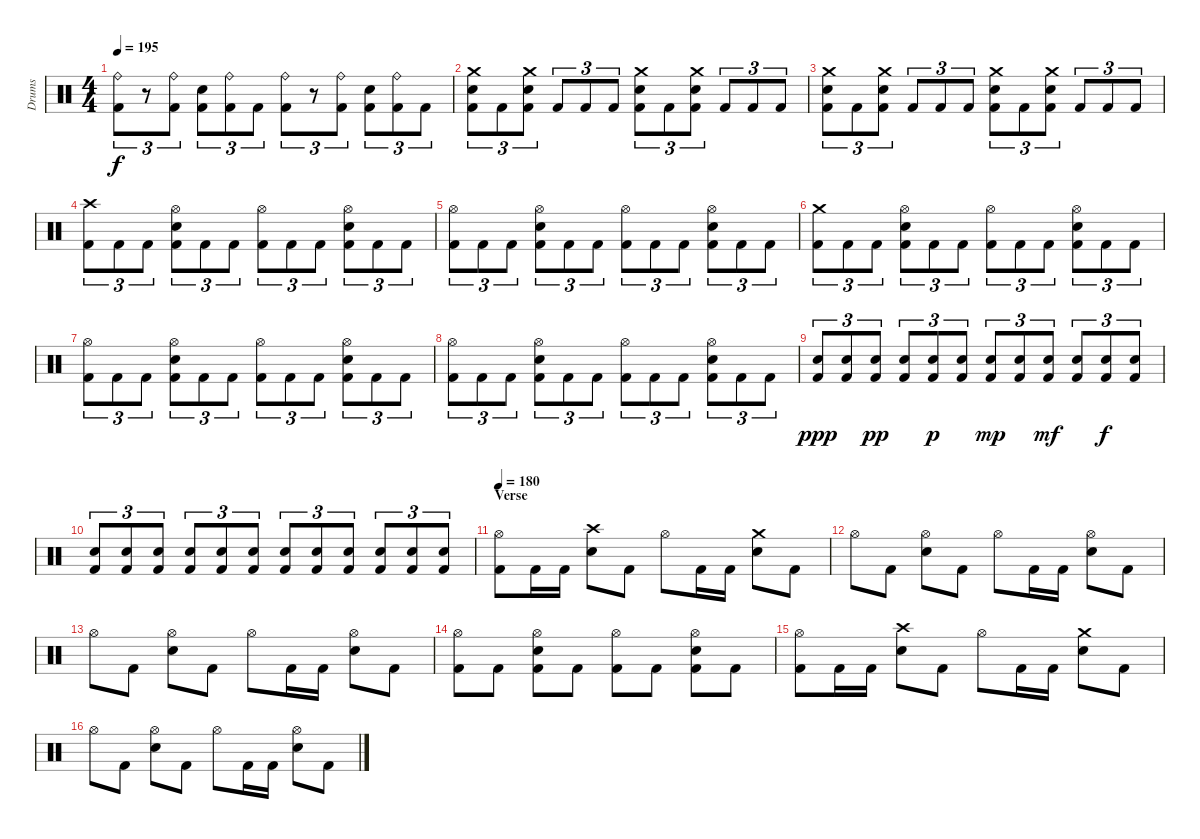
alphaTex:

\track ("Drums" "Drums") {instrument percussion}
\staff {score}
\articulation defaults
\ts (4 4)
\tempo 195
\clef neutral
\ks aminor
("Kick (hit) 2" "Ride (bell)").8{tu (3 2) dy f} r.8{tu (3 2)} ("Kick (hit) 2" "Ride (bell)").8{tu (3 2)} ("Kick (hit) 2" "Electric Snare (hit)").8{tu (3 2)} ("Kick (hit) 2" "Ride (bell)").8{tu (3 2)} "Kick (hit) 2".8{tu (3 2)} ("Kick (hit) 2" "Ride (bell)").8{tu (3 2)} r.8{tu (3 2)} ("Kick (hit) 2" "Ride (bell)").8{tu (3 2)} ("Kick (hit) 2" "Electric Snare (hit)").8{tu (3 2)} ("Kick (hit) 2" "Ride (bell)").8{tu (3 2)} "Kick (hit) 2".8{tu (3 2)} |
\section ("" "")
("Kick (hit) 2" "Electric Snare (hit)" "Crash medium (hit)").8{tu (3 2)} "Kick (hit) 2".8{tu (3 2)} ("Kick (hit) 2" "Electric Snare (hit)" "Crash medium (hit)").8{tu (3 2)} "Kick (hit) 2".8{tu (3 2)} "Kick (hit) 2".8{tu (3 2)} "Kick (hit) 2".8{tu (3 2)} ("Kick (hit) 2" "Electric Snare (hit)" "Crash medium (hit)").8{tu (3 2)} "Kick (hit) 2".8{tu (3 2)} ("Kick (hit) 2" "Electric Snare (hit)" "Crash medium (hit)").8{tu (3 2)} "Kick (hit) 2".8{tu (3 2)} "Kick (hit) 2".8{tu (3 2)} "Kick (hit) 2".8{tu (3 2)} |
("Kick (hit) 2" "Electric Snare (hit)" "Crash medium (hit)").8{tu (3 2)} "Kick (hit) 2".8{tu (3 2)} ("Kick (hit) 2" "Electric Snare (hit)" "Crash medium (hit)").8{tu (3 2)} "Kick (hit) 2".8{tu (3 2)} "Kick (hit) 2".8{tu (3 2)} "Kick (hit) 2".8{tu (3 2)} ("Kick (hit) 2" "Electric Snare (hit)" "Crash medium (hit)").8{tu (3 2)} "Kick (hit) 2".8{tu (3 2)} ("Kick (hit) 2" "Electric Snare (hit)" "Crash medium (hit)").8{tu (3 2)} "Kick (hit) 2".8{tu (3 2)} "Kick (hit) 2".8{tu (3 2)} "Kick (hit) 2".8{tu (3 2)} |
("Kick (hit) 2" "Crash high (hit)").8{tu (3 2)} "Kick (hit) 2".8{tu (3 2)} "Kick (hit) 2".8{tu (3 2)} ("Kick (hit) 2" "Electric Snare (hit)" "Hi-Hat (open)").8{tu (3 2)} "Kick (hit) 2".8{tu (3 2)} "Kick (hit) 2".8{tu (3 2)} ("Kick (hit) 2" "Hi-Hat (open)").8{tu (3 2)} "Kick (hit) 2".8{tu (3 2)} "Kick (hit) 2".8{tu (3 2)} ("Kick (hit) 2" "Electric Snare (hit)" "Hi-Hat (open)").8{tu (3 2)} "Kick (hit) 2".8{tu (3 2)} "Kick (hit) 2".8{tu (3 2)} |
("Kick (hit) 2" "Hi-Hat (open)").8{tu (3 2)} "Kick (hit) 2".8{tu (3 2)} "Kick (hit) 2".8{tu (3 2)} ("Kick (hit) 2" "Electric Snare (hit)" "Hi-Hat (open)").8{tu (3 2)} "Kick (hit) 2".8{tu (3 2)} "Kick (hit) 2".8{tu (3 2)} ("Kick (hit) 2" "Hi-Hat (open)").8{tu (3 2)} "Kick (hit) 2".8{tu (3 2)} "Kick (hit) 2".8{tu (3 2)} ("Kick (hit) 2" "Electric Snare (hit)" "Hi-Hat (open)").8{tu (3 2)} "Kick (hit) 2".8{tu (3 2)} "Kick (hit) 2".8{tu (3 2)} |
("Kick (hit) 2" "Crash medium (hit)").8{tu (3 2)} "Kick (hit) 2".8{tu (3 2)} "Kick (hit) 2".8{tu (3 2)} ("Kick (hit) 2" "Electric Snare (hit)" "Hi-Hat (open)").8{tu (3 2)} "Kick (hit) 2".8{tu (3 2)} "Kick (hit) 2".8{tu (3 2)} ("Kick (hit) 2" "Hi-Hat (open)").8{tu (3 2)} "Kick (hit) 2".8{tu (3 2)} "Kick (hit) 2".8{tu (3 2)} ("Kick (hit) 2" "Electric Snare (hit)" "Hi-Hat (open)").8{tu (3 2)} "Kick (hit) 2".8{tu (3 2)} "Kick (hit) 2".8{tu (3 2)} |
("Kick (hit) 2" "Hi-Hat (open)").8{tu (3 2)} "Kick (hit) 2".8{tu (3 2)} "Kick (hit) 2".8{tu (3 2)} ("Kick (hit) 2" "Electric Snare (hit)" "Hi-Hat (open)").8{tu (3 2)} "Kick (hit) 2".8{tu (3 2)} "Kick (hit) 2".8{tu (3 2)} ("Kick (hit) 2" "Hi-Hat (open)").8{tu (3 2)} "Kick (hit) 2".8{tu (3 2)} "Kick (hit) 2".8{tu (3 2)} ("Kick (hit) 2" "Electric Snare (hit)" "Hi-Hat (open)").8{tu (3 2)} "Kick (hit) 2".8{tu (3 2)} "Kick (hit) 2".8{tu (3 2)} |
("Kick (hit) 2" "Hi-Hat (open)").8{tu (3 2)} "Kick (hit) 2".8{tu (3 2)} "Kick (hit) 2".8{tu (3 2)} ("Kick (hit) 2" "Electric Snare (hit)" "Hi-Hat (open)").8{tu (3 2)} "Kick (hit) 2".8{tu (3 2)} "Kick (hit) 2".8{tu (3 2)} ("Kick (hit) 2" "Hi-Hat (open)").8{tu (3 2)} "Kick (hit) 2".8{tu (3 2)} "Kick (hit) 2".8{tu (3 2)} ("Kick (hit) 2" "Electric Snare (hit)" "Hi-Hat (open)").8{tu (3 2)} "Kick (hit) 2".8{tu (3 2)} "Kick (hit) 2".8{tu (3 2)} |
("Kick (hit) 2" "Electric Snare (hit)").8{tu (3 2) dy ppp} ("Kick (hit) 2" "Electric Snare (hit)").8{tu (3 2)} ("Kick (hit) 2" "Electric Snare (hit)").8{tu (3 2) dy pp} ("Kick (hit) 2" "Electric Snare (hit)").8{tu (3 2)} ("Kick (hit) 2" "Electric Snare (hit)").8{tu (3 2) dy p} ("Kick (hit) 2" "Electric Snare (hit)").8{tu (3 2)} ("Kick (hit) 2" "Electric Snare (hit)").8{tu (3 2) dy mp} ("Kick (hit) 2" "Electric Snare (hit)").8{tu (3 2)} ("Kick (hit) 2" "Electric Snare (hit)").8{tu (3 2) dy mf} ("Kick (hit) 2" "Electric Snare (hit)").8{tu (3 2)} ("Kick (hit) 2" "Electric Snare (hit)").8{tu (3 2) dy f} ("Kick (hit) 2" "Electric Snare (hit)").8{tu (3 2)} |
("Kick (hit) 2" "Electric Snare (hit)").8{tu (3 2)} ("Kick (hit) 2" "Electric Snare (hit)").8{tu (3 2)} ("Kick (hit) 2" "Electric Snare (hit)").8{tu (3 2)} ("Kick (hit) 2" "Electric Snare (hit)").8{tu (3 2)} ("Kick (hit) 2" "Electric Snare (hit)").8{tu (3 2)} ("Kick (hit) 2" "Electric Snare (hit)").8{tu (3 2)} ("Kick (hit) 2" "Electric Snare (hit)").8{tu (3 2)} ("Kick (hit) 2" "Electric Snare (hit)").8{tu (3 2)} ("Kick (hit) 2" "Electric Snare (hit)").8{tu (3 2)} ("Kick (hit) 2" "Electric Snare (hit)").8{tu (3 2)} ("Kick (hit) 2" "Electric Snare (hit)").8{tu (3 2)} ("Kick (hit) 2" "Electric Snare (hit)").8{tu (3 2)} |
\section ("" "Verse")
\tempo 180
("Kick (hit) 2" "Hi-Hat (open)").8 "Kick (hit) 2".16 "Kick (hit) 2".16 ("Electric Snare (hit)" "Crash high (hit)").8 "Kick (hit) 2".8 "Hi-Hat (open)".8 "Kick (hit) 2".16 "Kick (hit) 2".16 ("Electric Snare (hit)" "Crash medium (hit)").8 "Kick (hit) 2".8 |
"Hi-Hat (open)".8 "Kick (hit) 2".8 ("Electric Snare (hit)" "Hi-Hat (open)").8 "Kick (hit) 2".8 "Hi-Hat (open)".8 "Kick (hit) 2".16 "Kick (hit) 2".16 ("Electric Snare (hit)" "Hi-Hat (open)").8 "Kick (hit) 2".8 |
"Hi-Hat (open)".8 "Kick (hit) 2".8 ("Electric Snare (hit)" "Hi-Hat (open)").8 "Kick (hit) 2".8 "Hi-Hat (open)".8 "Kick (hit) 2".16 "Kick (hit) 2".16 ("Electric Snare (hit)" "Hi-Hat (open)").8 "Kick (hit) 2".8 |
("Kick (hit) 2" "Hi-Hat (open)").8 "Kick (hit) 2".8 ("Kick (hit) 2" "Electric Snare (hit)" "Hi-Hat (open)").8 "Kick (hit) 2".8 ("Kick (hit) 2" "Hi-Hat (open)").8 "Kick (hit) 2".8 ("Kick (hit) 2" "Electric Snare (hit)" "Hi-Hat (open)").8 "Kick (hit) 2".8 |
("Kick (hit) 2" "Hi-Hat (open)").8 "Kick (hit) 2".16 "Kick (hit) 2".16 ("Electric Snare (hit)" "Crash high (hit)").8 "Kick (hit) 2".8 "Hi-Hat (open)".8 "Kick (hit) 2".16 "Kick (hit) 2".16 ("Electric Snare (hit)" "Crash medium (hit)").8 "Kick (hit) 2".8 |
"Hi-Hat (open)".8 "Kick (hit) 2".8 ("Electric Snare (hit)" "Hi-Hat (open)").8 "Kick (hit) 2".8 "Hi-Hat (open)".8 "Kick (hit) 2".16 "Kick (hit) 2".16 ("Electric Snare (hit)" "Hi-Hat (open)").8 "Kick (hit) 2".8
